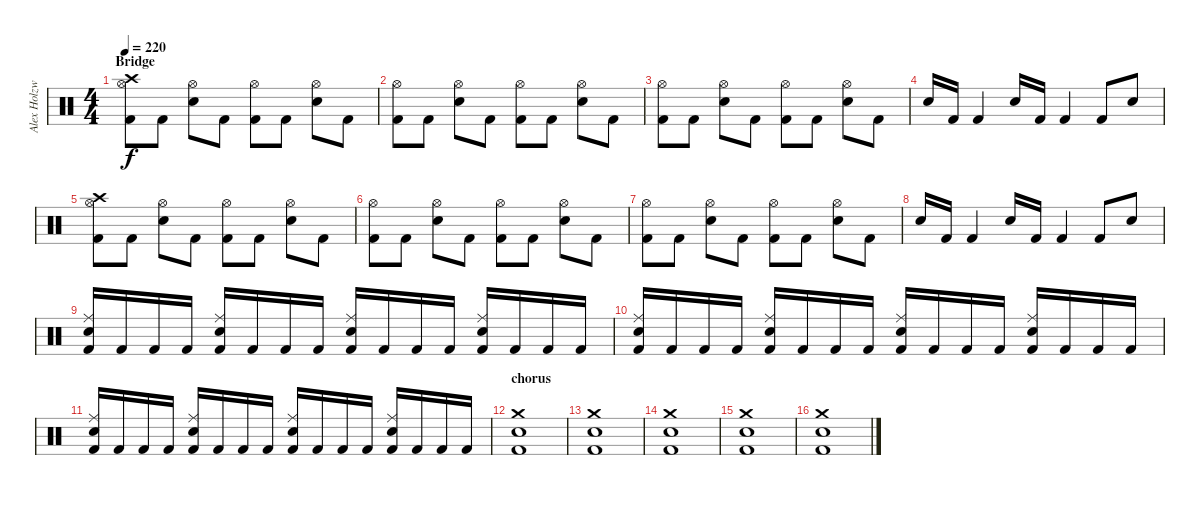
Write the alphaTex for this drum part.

\track ("Alex Holzwarth" "Alex Holzw") {instrument percussion}
\staff {score}
\articulation defaults
\ts (4 4)
\section ("" "Bridge")
\tempo 220
\clef neutral
\ks c
("Crash high (hit)" "Hi-Hat (open)" "Kick (hit) 2").8{dy f} "Kick (hit) 2".8 ("Hi-Hat (open)" "Electric Snare (hit)").8 "Kick (hit) 2".8 ("Hi-Hat (open)" "Kick (hit) 2").8 "Kick (hit) 2".8 ("Hi-Hat (open)" "Electric Snare (hit)").8 "Kick (hit) 2".8 |
("Hi-Hat (open)" "Kick (hit) 2").8 "Kick (hit) 2".8 ("Hi-Hat (open)" "Electric Snare (hit)").8 "Kick (hit) 2".8 ("Hi-Hat (open)" "Kick (hit) 2").8 "Kick (hit) 2".8 ("Hi-Hat (open)" "Electric Snare (hit)").8 "Kick (hit) 2".8 |
("Hi-Hat (open)" "Kick (hit) 2").8 "Kick (hit) 2".8 ("Hi-Hat (open)" "Electric Snare (hit)").8 "Kick (hit) 2".8 ("Hi-Hat (open)" "Kick (hit) 2").8 "Kick (hit) 2".8 ("Hi-Hat (open)" "Electric Snare (hit)").8 "Kick (hit) 2".8 |
"Electric Snare (hit)".16 "Kick (hit) 2".16 "Kick (hit) 2".4 "Electric Snare (hit)".16 "Kick (hit) 2".16 "Kick (hit) 2".4 "Kick (hit) 2".8 "Electric Snare (hit)".8 |
("Crash high (hit)" "Hi-Hat (open)" "Kick (hit) 2").8 "Kick (hit) 2".8 ("Hi-Hat (open)" "Electric Snare (hit)").8 "Kick (hit) 2".8 ("Hi-Hat (open)" "Kick (hit) 2").8 "Kick (hit) 2".8 ("Hi-Hat (open)" "Electric Snare (hit)").8 "Kick (hit) 2".8 |
("Hi-Hat (open)" "Kick (hit) 2").8 "Kick (hit) 2".8 ("Hi-Hat (open)" "Electric Snare (hit)").8 "Kick (hit) 2".8 ("Hi-Hat (open)" "Kick (hit) 2").8 "Kick (hit) 2".8 ("Hi-Hat (open)" "Electric Snare (hit)").8 "Kick (hit) 2".8 |
("Hi-Hat (open)" "Kick (hit) 2").8 "Kick (hit) 2".8 ("Hi-Hat (open)" "Electric Snare (hit)").8 "Kick (hit) 2".8 ("Hi-Hat (open)" "Kick (hit) 2").8 "Kick (hit) 2".8 ("Hi-Hat (open)" "Electric Snare (hit)").8 "Kick (hit) 2".8 |
"Electric Snare (hit)".16 "Kick (hit) 2".16 "Kick (hit) 2".4 "Electric Snare (hit)".16 "Kick (hit) 2".16 "Kick (hit) 2".4 "Kick (hit) 2".8 "Electric Snare (hit)".8 |
("Ride (middle)" "Snare (hit) 2" "Kick (hit) 2").16 "Kick (hit) 2".16 "Kick (hit) 2".16 "Kick (hit) 2".16 ("Ride (middle)" "Snare (hit) 2" "Kick (hit) 2").16 "Kick (hit) 2".16 "Kick (hit) 2".16 "Kick (hit) 2".16 ("Ride (middle)" "Snare (hit) 2" "Kick (hit) 2").16 "Kick (hit) 2".16 "Kick (hit) 2".16 "Kick (hit) 2".16 ("Ride (middle)" "Snare (hit) 2" "Kick (hit) 2").16 "Kick (hit) 2".16 "Kick (hit) 2".16 "Kick (hit) 2".16 |
("Ride (middle)" "Snare (hit) 2" "Kick (hit) 2").16 "Kick (hit) 2".16 "Kick (hit) 2".16 "Kick (hit) 2".16 ("Ride (middle)" "Snare (hit) 2" "Kick (hit) 2").16 "Kick (hit) 2".16 "Kick (hit) 2".16 "Kick (hit) 2".16 ("Ride (middle)" "Snare (hit) 2" "Kick (hit) 2").16 "Kick (hit) 2".16 "Kick (hit) 2".16 "Kick (hit) 2".16 ("Ride (middle)" "Snare (hit) 2" "Kick (hit) 2").16 "Kick (hit) 2".16 "Kick (hit) 2".16 "Kick (hit) 2".16 |
("Ride (middle)" "Snare (hit) 2" "Kick (hit) 2").16 "Kick (hit) 2".16 "Kick (hit) 2".16 "Kick (hit) 2".16 ("Ride (middle)" "Snare (hit) 2" "Kick (hit) 2").16 "Kick (hit) 2".16 "Kick (hit) 2".16 "Kick (hit) 2".16 ("Ride (middle)" "Snare (hit) 2" "Kick (hit) 2").16 "Kick (hit) 2".16 "Kick (hit) 2".16 "Kick (hit) 2".16 ("Ride (middle)" "Snare (hit) 2" "Kick (hit) 2").16 "Kick (hit) 2".16 "Kick (hit) 2".16 "Kick (hit) 2".16 |
\section ("" "chorus")
("Crash medium (hit)" "Snare (hit) 2" "Kick (hit) 2").1 |
("Crash medium (hit)" "Snare (hit) 2" "Kick (hit) 2").1 |
("Crash medium (hit)" "Snare (hit) 2" "Kick (hit) 2").1 |
("Crash medium (hit)" "Snare (hit) 2" "Kick (hit) 2").1 |
("Crash medium (hit)" "Snare (hit) 2" "Kick (hit) 2").1
